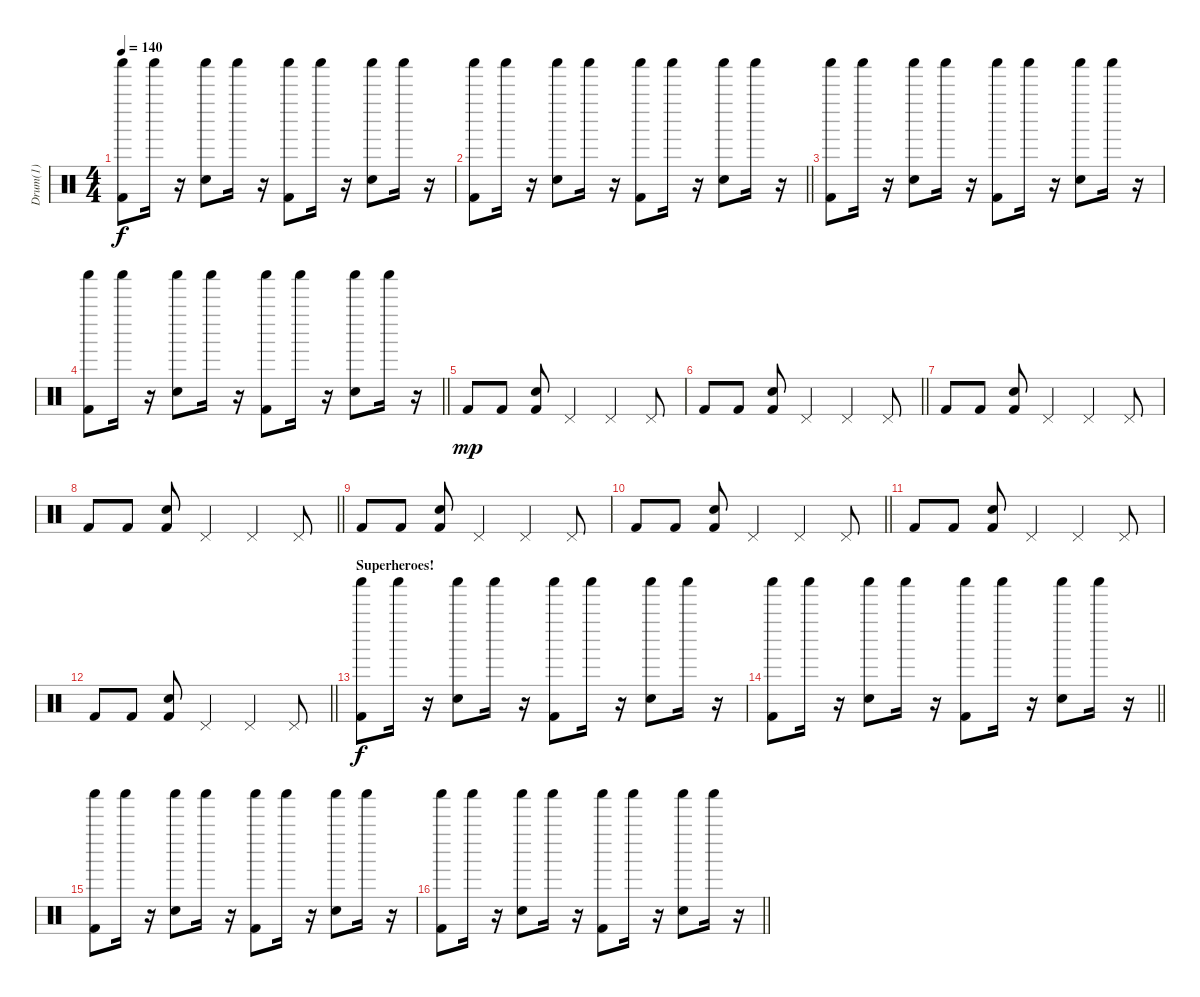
\track ("Drum(1)" "Drum(1)") {instrument percussion}
\staff {score}
\articulation defaults
\ts (4 4)
\tempo 140
\clef neutral
\ks c
("Kick (hit) 2" "Shaker (hit)").8{dy f} "Shaker (hit)".16 r.16 ("Electric Snare (hit)" "Shaker (hit)").8 "Shaker (hit)".16 r.16 ("Kick (hit) 2" "Shaker (hit)").8 "Shaker (hit)".16 r.16 ("Electric Snare (hit)" "Shaker (hit)").8 "Shaker (hit)".16 r.16 |
\barLineRight lightlight
("Kick (hit) 2" "Shaker (hit)").8 "Shaker (hit)".16 r.16 ("Electric Snare (hit)" "Shaker (hit)").8 "Shaker (hit)".16 r.16 ("Kick (hit) 2" "Shaker (hit)").8 "Shaker (hit)".16 r.16 ("Electric Snare (hit)" "Shaker (hit)").8 "Shaker (hit)".16 r.16 |
("Kick (hit) 2" "Shaker (hit)").8 "Shaker (hit)".16 r.16 ("Electric Snare (hit)" "Shaker (hit)").8 "Shaker (hit)".16 r.16 ("Kick (hit) 2" "Shaker (hit)").8 "Shaker (hit)".16 r.16 ("Electric Snare (hit)" "Shaker (hit)").8 "Shaker (hit)".16 r.16 |
\barLineRight lightlight
("Kick (hit) 2" "Shaker (hit)").8 "Shaker (hit)".16 r.16 ("Electric Snare (hit)" "Shaker (hit)").8 "Shaker (hit)".16 r.16 ("Kick (hit) 2" "Shaker (hit)").8 "Shaker (hit)".16 r.16 ("Electric Snare (hit)" "Shaker (hit)").8 "Shaker (hit)".16 r.16 |
"Kick (hit) 2".8{dy mp} "Kick (hit) 2".8 ("Snare (hit) 2" "Kick (hit) 2").8 "Pedal Hi-Hat (hit)".4 "Pedal Hi-Hat (hit)".4 "Pedal Hi-Hat (hit)".8 |
\barLineRight lightlight "Kick (hit) 2".8 "Kick (hit) 2".8
("Snare (hit) 2" "Kick (hit) 2").8 "Pedal Hi-Hat (hit)".4 "Pedal Hi-Hat (hit)".4 "Pedal Hi-Hat (hit)".8 |
"Kick (hit) 2".8 "Kick (hit) 2".8 ("Snare (hit) 2" "Kick (hit) 2").8 "Pedal Hi-Hat (hit)".4 "Pedal Hi-Hat (hit)".4 "Pedal Hi-Hat (hit)".8 |
\barLineRight lightlight "Kick (hit) 2".8 "Kick (hit) 2".8
("Snare (hit) 2" "Kick (hit) 2").8 "Pedal Hi-Hat (hit)".4 "Pedal Hi-Hat (hit)".4 "Pedal Hi-Hat (hit)".8 |
"Kick (hit) 2".8 "Kick (hit) 2".8 ("Snare (hit) 2" "Kick (hit) 2").8 "Pedal Hi-Hat (hit)".4 "Pedal Hi-Hat (hit)".4 "Pedal Hi-Hat (hit)".8 |
\barLineRight lightlight "Kick (hit) 2".8 "Kick (hit) 2".8
("Snare (hit) 2" "Kick (hit) 2").8 "Pedal Hi-Hat (hit)".4 "Pedal Hi-Hat (hit)".4 "Pedal Hi-Hat (hit)".8 |
"Kick (hit) 2".8 "Kick (hit) 2".8 ("Snare (hit) 2" "Kick (hit) 2").8 "Pedal Hi-Hat (hit)".4 "Pedal Hi-Hat (hit)".4 "Pedal Hi-Hat (hit)".8 |
\barLineRight lightlight "Kick (hit) 2".8 "Kick (hit) 2".8
("Snare (hit) 2" "Kick (hit) 2").8 "Pedal Hi-Hat (hit)".4 "Pedal Hi-Hat (hit)".4 "Pedal Hi-Hat (hit)".8 |
\section ("" "Superheroes!")
("Kick (hit) 2" "Shaker (hit)").8{dy f volume 8} "Shaker (hit)".16 r.16 ("Electric Snare (hit)" "Shaker (hit)").8 "Shaker (hit)".16 r.16 ("Kick (hit) 2" "Shaker (hit)").8 "Shaker (hit)".16 r.16 ("Electric Snare (hit)" "Shaker (hit)").8 "Shaker (hit)".16 r.16 |
\barLineRight lightlight
("Kick (hit) 2" "Shaker (hit)").8 "Shaker (hit)".16 r.16 ("Electric Snare (hit)" "Shaker (hit)").8 "Shaker (hit)".16 r.16 ("Kick (hit) 2" "Shaker (hit)").8 "Shaker (hit)".16 r.16 ("Electric Snare (hit)" "Shaker (hit)").8 "Shaker (hit)".16 r.16 |
("Kick (hit) 2" "Shaker (hit)").8 "Shaker (hit)".16 r.16 ("Electric Snare (hit)" "Shaker (hit)").8 "Shaker (hit)".16 r.16 ("Kick (hit) 2" "Shaker (hit)").8 "Shaker (hit)".16 r.16 ("Electric Snare (hit)" "Shaker (hit)").8 "Shaker (hit)".16 r.16 |
\barLineRight lightlight
("Kick (hit) 2" "Shaker (hit)").8 "Shaker (hit)".16 r.16 ("Electric Snare (hit)" "Shaker (hit)").8 "Shaker (hit)".16 r.16 ("Kick (hit) 2" "Shaker (hit)").8 "Shaker (hit)".16 r.16 ("Electric Snare (hit)" "Shaker (hit)").8 "Shaker (hit)".16 r.16
